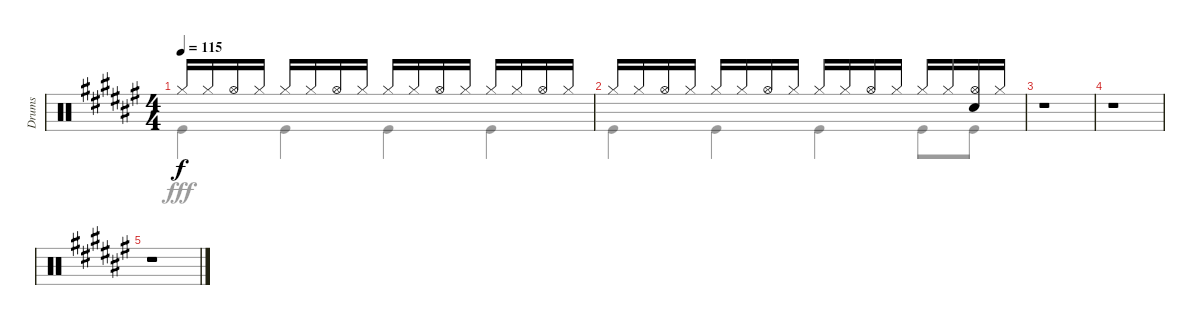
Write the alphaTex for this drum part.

\track ("Drums" "Drums") {instrument percussion}
\staff {score}
\articulation defaults
\voice
\ts (4 4)
\tempo 115
\clef neutral
\ks f# "Hi-Hat (closed)".16{dy f} "Hi-Hat (closed)".16 "Hi-Hat (open)".16 "Hi-Hat (closed)".16 "Hi-Hat (closed)".16 "Hi-Hat (closed)".16 "Hi-Hat (open)".16 "Hi-Hat (closed)".16 "Hi-Hat (closed)".16 "Hi-Hat (closed)".16 "Hi-Hat (open)".16 "Hi-Hat (closed)".16 "Hi-Hat (closed)".16 "Hi-Hat (closed)".16 "Hi-Hat (open)".16 "Hi-Hat (closed)".16
|
"Hi-Hat (closed)".16 "Hi-Hat (closed)".16 "Hi-Hat (open)".16 "Hi-Hat (closed)".16 "Hi-Hat (closed)".16 "Hi-Hat (closed)".16 "Hi-Hat (open)".16 "Hi-Hat (closed)".16 "Hi-Hat (closed)".16 "Hi-Hat (closed)".16 "Hi-Hat (open)".16 "Hi-Hat (closed)".16 "Hi-Hat (closed)".16 "Hi-Hat (closed)".16 ("Hi-Hat (open)" "Snare (hit) 2").16 "Hi-Hat (closed)".16 |
r.1 |
r.1 |
r.1
\voice
\clef neutral
\ottava regular
\simile none
\ks f# "Kick (hit)".4{dy fff} "Kick (hit)".4 "Kick (hit)".4 "Kick (hit)".4
|
"Kick (hit)".4 "Kick (hit)".4 "Kick (hit)".4 "Kick (hit)".8 "Kick (hit)".8 |
r.1 |
r.1 |
r.1
